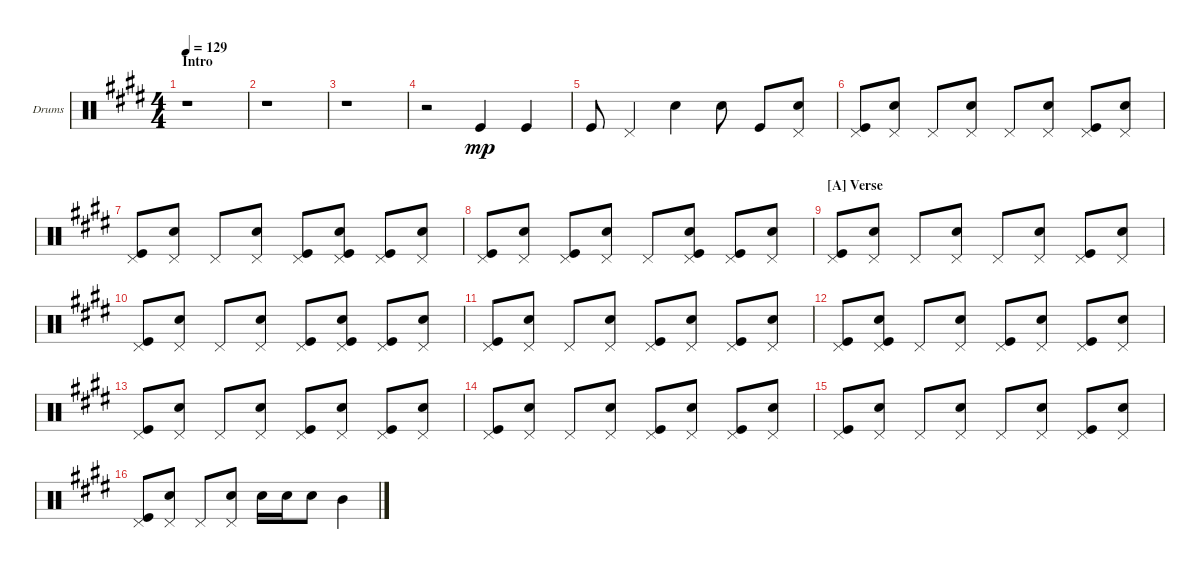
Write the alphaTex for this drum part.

\defaultSystemsLayout 4
\bracketExtendMode groupsimilarinstruments
\firstSystemTrackNameOrientation horizontal
\otherSystemsTrackNameOrientation horizontal
\chordDiagramsInScore
\track ("Drumkit" "Drums") {instrument percussion}
\staff {score}
\articulation defaults
\ts (4 4)
\section ("" "Intro")
\tempo 129
\clef neutral
\ks c#minor
r.1{dy mp} |
r.1 |
r.1 |
r.2 "Kick (hit)".4 "Kick (hit)".4 |
"Kick (hit)".8 "Pedal Hi-Hat (hit)".4 "Snare (hit) 2".4 "Snare (hit) 2".8 "Kick (hit)".8 ("Snare (hit) 2" "Pedal Hi-Hat (hit)").8 |
("Kick (hit)" "Pedal Hi-Hat (hit)").8 ("Pedal Hi-Hat (hit)" "Snare (hit) 2").8 "Pedal Hi-Hat (hit)".8 ("Pedal Hi-Hat (hit)" "Snare (hit) 2").8 "Pedal Hi-Hat (hit)".8 ("Pedal Hi-Hat (hit)" "Snare (hit) 2").8 ("Pedal Hi-Hat (hit)" "Kick (hit)").8 ("Pedal Hi-Hat (hit)" "Snare (hit) 2").8 |
("Kick (hit)" "Pedal Hi-Hat (hit)").8 ("Pedal Hi-Hat (hit)" "Snare (hit) 2").8 "Pedal Hi-Hat (hit)".8 ("Pedal Hi-Hat (hit)" "Snare (hit) 2").8 ("Pedal Hi-Hat (hit)" "Kick (hit)").8 ("Pedal Hi-Hat (hit)" "Snare (hit) 2" "Kick (hit)").8 ("Pedal Hi-Hat (hit)" "Kick (hit)").8 ("Pedal Hi-Hat (hit)" "Snare (hit) 2").8 |
("Kick (hit)" "Pedal Hi-Hat (hit)").8 ("Pedal Hi-Hat (hit)" "Snare (hit) 2").8 ("Pedal Hi-Hat (hit)" "Kick (hit)").8 ("Pedal Hi-Hat (hit)" "Snare (hit) 2").8 "Pedal Hi-Hat (hit)".8 ("Pedal Hi-Hat (hit)" "Snare (hit) 2" "Kick (hit)").8 ("Pedal Hi-Hat (hit)" "Kick (hit)").8 ("Pedal Hi-Hat (hit)" "Snare (hit) 2").8 |
\section ("A" "Verse")
("Kick (hit)" "Pedal Hi-Hat (hit)").8 ("Pedal Hi-Hat (hit)" "Snare (hit) 2").8 "Pedal Hi-Hat (hit)".8 ("Pedal Hi-Hat (hit)" "Snare (hit) 2").8 "Pedal Hi-Hat (hit)".8 ("Pedal Hi-Hat (hit)" "Snare (hit) 2").8 ("Pedal Hi-Hat (hit)" "Kick (hit)").8 ("Pedal Hi-Hat (hit)" "Snare (hit) 2").8 |
("Kick (hit)" "Pedal Hi-Hat (hit)").8 ("Pedal Hi-Hat (hit)" "Snare (hit) 2").8 "Pedal Hi-Hat (hit)".8 ("Pedal Hi-Hat (hit)" "Snare (hit) 2").8 ("Pedal Hi-Hat (hit)" "Kick (hit)").8 ("Pedal Hi-Hat (hit)" "Snare (hit) 2" "Kick (hit)").8 ("Pedal Hi-Hat (hit)" "Kick (hit)").8 ("Pedal Hi-Hat (hit)" "Snare (hit) 2").8 |
("Kick (hit)" "Pedal Hi-Hat (hit)").8 ("Pedal Hi-Hat (hit)" "Snare (hit) 2").8 "Pedal Hi-Hat (hit)".8 ("Pedal Hi-Hat (hit)" "Snare (hit) 2").8 ("Pedal Hi-Hat (hit)" "Kick (hit)").8 ("Pedal Hi-Hat (hit)" "Snare (hit) 2").8 ("Pedal Hi-Hat (hit)" "Kick (hit)").8 ("Pedal Hi-Hat (hit)" "Snare (hit) 2").8 |
("Kick (hit)" "Pedal Hi-Hat (hit)").8 ("Pedal Hi-Hat (hit)" "Snare (hit) 2" "Kick (hit)").8 "Pedal Hi-Hat (hit)".8 ("Pedal Hi-Hat (hit)" "Snare (hit) 2").8 ("Pedal Hi-Hat (hit)" "Kick (hit)").8 ("Pedal Hi-Hat (hit)" "Snare (hit) 2").8 ("Pedal Hi-Hat (hit)" "Kick (hit)").8 ("Pedal Hi-Hat (hit)" "Snare (hit) 2").8 |
("Kick (hit)" "Pedal Hi-Hat (hit)").8 ("Pedal Hi-Hat (hit)" "Snare (hit) 2").8 "Pedal Hi-Hat (hit)".8 ("Pedal Hi-Hat (hit)" "Snare (hit) 2").8 ("Pedal Hi-Hat (hit)" "Kick (hit)").8 ("Pedal Hi-Hat (hit)" "Snare (hit) 2").8 ("Pedal Hi-Hat (hit)" "Kick (hit)").8 ("Pedal Hi-Hat (hit)" "Snare (hit) 2").8 |
("Kick (hit)" "Pedal Hi-Hat (hit)").8 ("Pedal Hi-Hat (hit)" "Snare (hit) 2").8 "Pedal Hi-Hat (hit)".8 ("Pedal Hi-Hat (hit)" "Snare (hit) 2").8 ("Pedal Hi-Hat (hit)" "Kick (hit)").8 ("Pedal Hi-Hat (hit)" "Snare (hit) 2").8 ("Pedal Hi-Hat (hit)" "Kick (hit)").8 ("Pedal Hi-Hat (hit)" "Snare (hit) 2").8 |
("Kick (hit)" "Pedal Hi-Hat (hit)").8 ("Pedal Hi-Hat (hit)" "Snare (hit) 2").8 "Pedal Hi-Hat (hit)".8 ("Pedal Hi-Hat (hit)" "Snare (hit) 2").8 "Pedal Hi-Hat (hit)".8 ("Pedal Hi-Hat (hit)" "Snare (hit) 2").8 ("Pedal Hi-Hat (hit)" "Kick (hit)").8 ("Pedal Hi-Hat (hit)" "Snare (hit) 2").8 |
("Kick (hit)" "Pedal Hi-Hat (hit)").8 ("Pedal Hi-Hat (hit)" "Snare (hit) 2").8 "Pedal Hi-Hat (hit)".8 ("Pedal Hi-Hat (hit)" "Snare (hit) 2").8 "Snare (hit) 2".16 "Snare (hit) 2".16 "Snare (hit) 2".8 "Mid Tom (hit)".4
